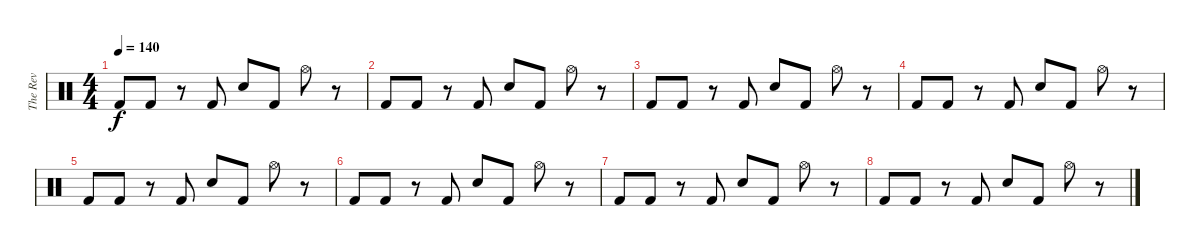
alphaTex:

\track ("The Rev" "The Rev") {instrument percussion}
\staff {score}
\articulation defaults
\ts (4 4)
\tempo 140
\clef neutral
\ks c "Kick (hit) 2".8{dy f volume 14} "Kick (hit) 2".8
r.8 "Kick (hit) 2".8 "Snare (hit) 2".8 "Kick (hit) 2".8 "Hi-Hat (open)".8 r.8 |
"Kick (hit) 2".8{volume 12} "Kick (hit) 2".8 r.8 "Kick (hit) 2".8 "Snare (hit) 2".8 "Kick (hit) 2".8 "Hi-Hat (open)".8 r.8 |
"Kick (hit) 2".8{volume 10} "Kick (hit) 2".8 r.8 "Kick (hit) 2".8 "Snare (hit) 2".8 "Kick (hit) 2".8 "Hi-Hat (open)".8 r.8 |
"Kick (hit) 2".8{volume 8} "Kick (hit) 2".8 r.8 "Kick (hit) 2".8 "Snare (hit) 2".8 "Kick (hit) 2".8 "Hi-Hat (open)".8 r.8 |
"Kick (hit) 2".8{volume 6} "Kick (hit) 2".8 r.8 "Kick (hit) 2".8 "Snare (hit) 2".8 "Kick (hit) 2".8 "Hi-Hat (open)".8 r.8 |
"Kick (hit) 2".8{volume 4} "Kick (hit) 2".8 r.8 "Kick (hit) 2".8 "Snare (hit) 2".8 "Kick (hit) 2".8 "Hi-Hat (open)".8 r.8 |
"Kick (hit) 2".8{volume 2} "Kick (hit) 2".8 r.8 "Kick (hit) 2".8 "Snare (hit) 2".8 "Kick (hit) 2".8 "Hi-Hat (open)".8 r.8 |
"Kick (hit) 2".8{volume 0} "Kick (hit) 2".8 r.8 "Kick (hit) 2".8 "Snare (hit) 2".8 "Kick (hit) 2".8 "Hi-Hat (open)".8 r.8
